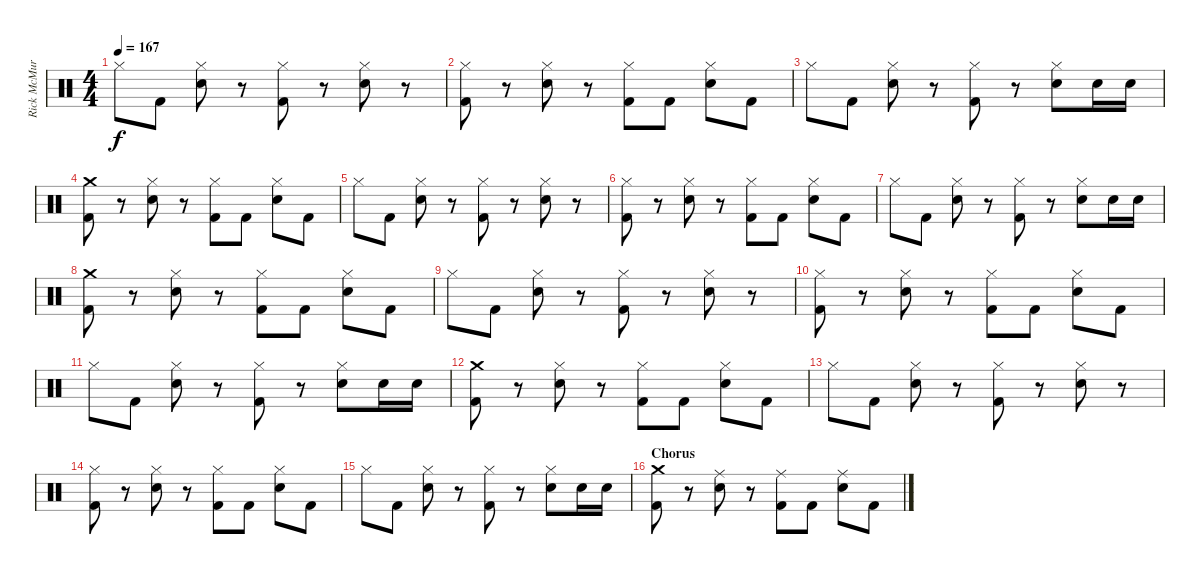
\track ("Rick McMurray" "Rick McMur") {instrument percussion}
\staff {score}
\articulation defaults
\ts (4 4)
\tempo 167
\clef neutral
\ks c "Hi-Hat (closed)".8{dy f} "Kick (hit) 2".8
("Hi-Hat (closed)" "Electric Snare (hit)").8 r.8 ("Hi-Hat (closed)" "Kick (hit) 2").8 r.8 ("Hi-Hat (closed)" "Electric Snare (hit)").8 r.8 |
("Hi-Hat (closed)" "Kick (hit) 2").8 r.8 ("Hi-Hat (closed)" "Electric Snare (hit)").8 r.8 ("Hi-Hat (closed)" "Kick (hit) 2").8 "Kick (hit) 2".8 ("Hi-Hat (closed)" "Electric Snare (hit)").8 "Kick (hit) 2".8 |
"Hi-Hat (closed)".8 "Kick (hit) 2".8 ("Hi-Hat (closed)" "Electric Snare (hit)").8 r.8 ("Hi-Hat (closed)" "Kick (hit) 2").8 r.8 ("Hi-Hat (closed)" "Electric Snare (hit)").8 "Electric Snare (hit)".16 "Electric Snare (hit)".16 |
("Crash medium (hit)" "Kick (hit) 2").8 r.8 ("Hi-Hat (closed)" "Electric Snare (hit)").8 r.8 ("Hi-Hat (closed)" "Kick (hit) 2").8 "Kick (hit) 2".8 ("Hi-Hat (closed)" "Electric Snare (hit)").8 "Kick (hit) 2".8 |
"Hi-Hat (closed)".8 "Kick (hit) 2".8 ("Hi-Hat (closed)" "Electric Snare (hit)").8 r.8 ("Hi-Hat (closed)" "Kick (hit) 2").8 r.8 ("Hi-Hat (closed)" "Electric Snare (hit)").8 r.8 |
("Hi-Hat (closed)" "Kick (hit) 2").8 r.8 ("Hi-Hat (closed)" "Electric Snare (hit)").8 r.8 ("Hi-Hat (closed)" "Kick (hit) 2").8 "Kick (hit) 2".8 ("Hi-Hat (closed)" "Electric Snare (hit)").8 "Kick (hit) 2".8 |
"Hi-Hat (closed)".8 "Kick (hit) 2".8 ("Hi-Hat (closed)" "Electric Snare (hit)").8 r.8 ("Hi-Hat (closed)" "Kick (hit) 2").8 r.8 ("Hi-Hat (closed)" "Electric Snare (hit)").8 "Electric Snare (hit)".16 "Electric Snare (hit)".16 |
("Crash medium (hit)" "Kick (hit) 2").8 r.8 ("Hi-Hat (closed)" "Electric Snare (hit)").8 r.8 ("Hi-Hat (closed)" "Kick (hit) 2").8 "Kick (hit) 2".8 ("Hi-Hat (closed)" "Electric Snare (hit)").8 "Kick (hit) 2".8 |
"Hi-Hat (closed)".8 "Kick (hit) 2".8 ("Hi-Hat (closed)" "Electric Snare (hit)").8 r.8 ("Hi-Hat (closed)" "Kick (hit) 2").8 r.8 ("Hi-Hat (closed)" "Electric Snare (hit)").8 r.8 |
("Hi-Hat (closed)" "Kick (hit) 2").8 r.8 ("Hi-Hat (closed)" "Electric Snare (hit)").8 r.8 ("Hi-Hat (closed)" "Kick (hit) 2").8 "Kick (hit) 2".8 ("Hi-Hat (closed)" "Electric Snare (hit)").8 "Kick (hit) 2".8 |
"Hi-Hat (closed)".8 "Kick (hit) 2".8 ("Hi-Hat (closed)" "Electric Snare (hit)").8 r.8 ("Hi-Hat (closed)" "Kick (hit) 2").8 r.8 ("Hi-Hat (closed)" "Electric Snare (hit)").8 "Electric Snare (hit)".16 "Electric Snare (hit)".16 |
("Crash medium (hit)" "Kick (hit) 2").8 r.8 ("Hi-Hat (closed)" "Electric Snare (hit)").8 r.8 ("Hi-Hat (closed)" "Kick (hit) 2").8 "Kick (hit) 2".8 ("Hi-Hat (closed)" "Electric Snare (hit)").8 "Kick (hit) 2".8 |
"Hi-Hat (closed)".8 "Kick (hit) 2".8 ("Hi-Hat (closed)" "Electric Snare (hit)").8 r.8 ("Hi-Hat (closed)" "Kick (hit) 2").8 r.8 ("Hi-Hat (closed)" "Electric Snare (hit)").8 r.8 |
("Hi-Hat (closed)" "Kick (hit) 2").8 r.8 ("Hi-Hat (closed)" "Electric Snare (hit)").8 r.8 ("Hi-Hat (closed)" "Kick (hit) 2").8 "Kick (hit) 2".8 ("Hi-Hat (closed)" "Electric Snare (hit)").8 "Kick (hit) 2".8 |
"Hi-Hat (closed)".8 "Kick (hit) 2".8 ("Hi-Hat (closed)" "Electric Snare (hit)").8 r.8 ("Hi-Hat (closed)" "Kick (hit) 2").8 r.8 ("Hi-Hat (closed)" "Electric Snare (hit)").8 "Electric Snare (hit)".16 "Electric Snare (hit)".16 |
\section ("" "Chorus")
("Crash medium (hit)" "Kick (hit) 2").8 r.8 ("Ride (middle)" "Electric Snare (hit)").8 r.8 ("Ride (middle)" "Kick (hit) 2").8 "Kick (hit) 2".8 ("Ride (middle)" "Electric Snare (hit)").8 "Kick (hit) 2".8
